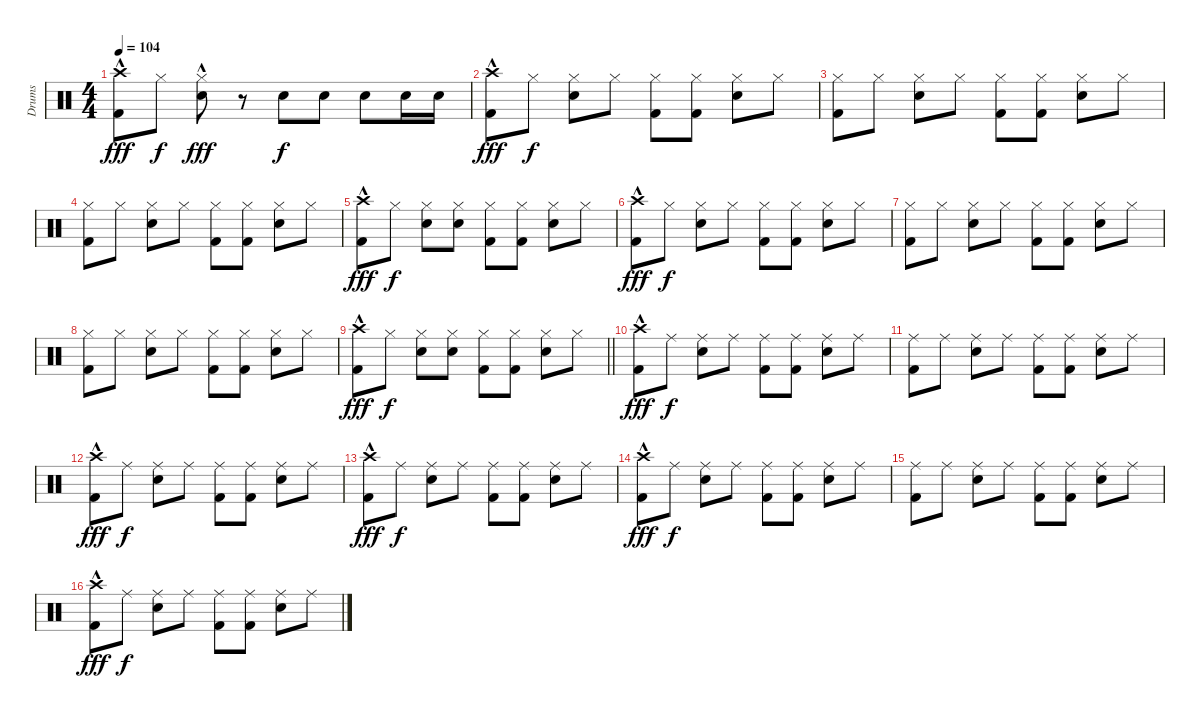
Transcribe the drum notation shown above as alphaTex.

\track ("Drums" "Drums") {instrument percussion}
\staff {score}
\articulation defaults
\ts (4 4)
\tempo 104
\clef neutral
\ks c
("Crash high (hit)"{hac} "Kick (hit) 2").8{dy fff} "Hi-Hat (closed)".8{dy f} ("Hi-Hat (closed)"{hac} "Snare (hit) 2").8{dy fff} r.8 "Snare (hit) 2".8{dy f} "Snare (hit) 2".8 "Snare (hit) 2".8 "Snare (hit) 2".16 "Snare (hit) 2".16 |
("Crash high (hit)"{hac} "Kick (hit) 2").8{dy fff} "Hi-Hat (closed)".8{dy f} ("Hi-Hat (closed)" "Snare (hit) 2").8 "Hi-Hat (closed)".8 ("Hi-Hat (closed)" "Kick (hit) 2").8 ("Hi-Hat (closed)" "Kick (hit) 2").8 ("Hi-Hat (closed)" "Snare (hit) 2").8 "Hi-Hat (closed)".8 |
("Hi-Hat (closed)" "Kick (hit) 2").8 "Hi-Hat (closed)".8 ("Hi-Hat (closed)" "Snare (hit) 2").8 "Hi-Hat (closed)".8 ("Hi-Hat (closed)" "Kick (hit) 2").8 ("Hi-Hat (closed)" "Kick (hit) 2").8 ("Hi-Hat (closed)" "Snare (hit) 2").8 "Hi-Hat (closed)".8 |
("Hi-Hat (closed)" "Kick (hit) 2").8 "Hi-Hat (closed)".8 ("Hi-Hat (closed)" "Snare (hit) 2").8 "Hi-Hat (closed)".8 ("Hi-Hat (closed)" "Kick (hit) 2").8 ("Hi-Hat (closed)" "Kick (hit) 2").8 ("Hi-Hat (closed)" "Snare (hit) 2").8 "Hi-Hat (closed)".8 |
("Crash high (hit)"{hac} "Kick (hit) 2").8{dy fff} "Hi-Hat (closed)".8{dy f} ("Hi-Hat (closed)" "Snare (hit) 2").8 ("Hi-Hat (closed)" "Snare (hit) 2").8 ("Hi-Hat (closed)" "Kick (hit) 2").8 ("Hi-Hat (closed)" "Kick (hit) 2").8 ("Hi-Hat (closed)" "Snare (hit) 2").8 "Hi-Hat (closed)".8 |
("Crash high (hit)"{hac} "Kick (hit) 2").8{dy fff} "Hi-Hat (closed)".8{dy f} ("Hi-Hat (closed)" "Snare (hit) 2").8 "Hi-Hat (closed)".8 ("Hi-Hat (closed)" "Kick (hit) 2").8 ("Hi-Hat (closed)" "Kick (hit) 2").8 ("Hi-Hat (closed)" "Snare (hit) 2").8 "Hi-Hat (closed)".8 |
("Hi-Hat (closed)" "Kick (hit) 2").8 "Hi-Hat (closed)".8 ("Hi-Hat (closed)" "Snare (hit) 2").8 "Hi-Hat (closed)".8 ("Hi-Hat (closed)" "Kick (hit) 2").8 ("Hi-Hat (closed)" "Kick (hit) 2").8 ("Hi-Hat (closed)" "Snare (hit) 2").8 "Hi-Hat (closed)".8 |
("Hi-Hat (closed)" "Kick (hit) 2").8 "Hi-Hat (closed)".8 ("Hi-Hat (closed)" "Snare (hit) 2").8 "Hi-Hat (closed)".8 ("Hi-Hat (closed)" "Kick (hit) 2").8 ("Hi-Hat (closed)" "Kick (hit) 2").8 ("Hi-Hat (closed)" "Snare (hit) 2").8 "Hi-Hat (closed)".8 |
\barLineRight lightlight
("Crash high (hit)"{hac} "Kick (hit) 2").8{dy fff} "Hi-Hat (closed)".8{dy f} ("Hi-Hat (closed)" "Snare (hit) 2").8 ("Hi-Hat (closed)" "Snare (hit) 2").8 ("Hi-Hat (closed)" "Kick (hit) 2").8 ("Hi-Hat (closed)" "Kick (hit) 2").8 ("Hi-Hat (closed)" "Snare (hit) 2").8 "Hi-Hat (closed)".8 |
("Crash high (hit)"{hac} "Kick (hit) 2").8{dy fff} "Ride (middle)".8{dy f} ("Ride (middle)" "Snare (hit) 2").8 "Ride (middle)".8 ("Ride (middle)" "Kick (hit) 2").8 ("Ride (middle)" "Kick (hit) 2").8 ("Ride (middle)" "Snare (hit) 2").8 "Ride (middle)".8 |
("Ride (middle)" "Kick (hit) 2").8 "Ride (middle)".8 ("Ride (middle)" "Snare (hit) 2").8 "Ride (middle)".8 ("Ride (middle)" "Kick (hit) 2").8 ("Ride (middle)" "Kick (hit) 2").8 ("Ride (middle)" "Snare (hit) 2").8 "Ride (middle)".8 |
("Crash high (hit)"{hac} "Kick (hit) 2").8{dy fff} "Ride (middle)".8{dy f} ("Ride (middle)" "Snare (hit) 2").8 "Ride (middle)".8 ("Ride (middle)" "Kick (hit) 2").8 ("Ride (middle)" "Kick (hit) 2").8 ("Ride (middle)" "Snare (hit) 2").8 "Ride (middle)".8 |
("Crash high (hit)"{hac} "Kick (hit) 2").8{dy fff} "Ride (middle)".8{dy f} ("Ride (middle)" "Snare (hit) 2").8 "Ride (middle)".8 ("Ride (middle)" "Kick (hit) 2").8 ("Ride (middle)" "Kick (hit) 2").8 ("Ride (middle)" "Snare (hit) 2").8 "Ride (middle)".8 |
("Crash high (hit)"{hac} "Kick (hit) 2").8{dy fff} "Ride (middle)".8{dy f} ("Ride (middle)" "Snare (hit) 2").8 "Ride (middle)".8 ("Ride (middle)" "Kick (hit) 2").8 ("Ride (middle)" "Kick (hit) 2").8 ("Ride (middle)" "Snare (hit) 2").8 "Ride (middle)".8 |
("Ride (middle)" "Kick (hit) 2").8 "Ride (middle)".8 ("Ride (middle)" "Snare (hit) 2").8 "Ride (middle)".8 ("Ride (middle)" "Kick (hit) 2").8 ("Ride (middle)" "Kick (hit) 2").8 ("Ride (middle)" "Snare (hit) 2").8 "Ride (middle)".8 |
("Crash high (hit)"{hac} "Kick (hit) 2").8{dy fff} "Ride (middle)".8{dy f} ("Ride (middle)" "Snare (hit) 2").8 "Ride (middle)".8 ("Ride (middle)" "Kick (hit) 2").8 ("Ride (middle)" "Kick (hit) 2").8 ("Ride (middle)" "Snare (hit) 2").8 "Ride (middle)".8
